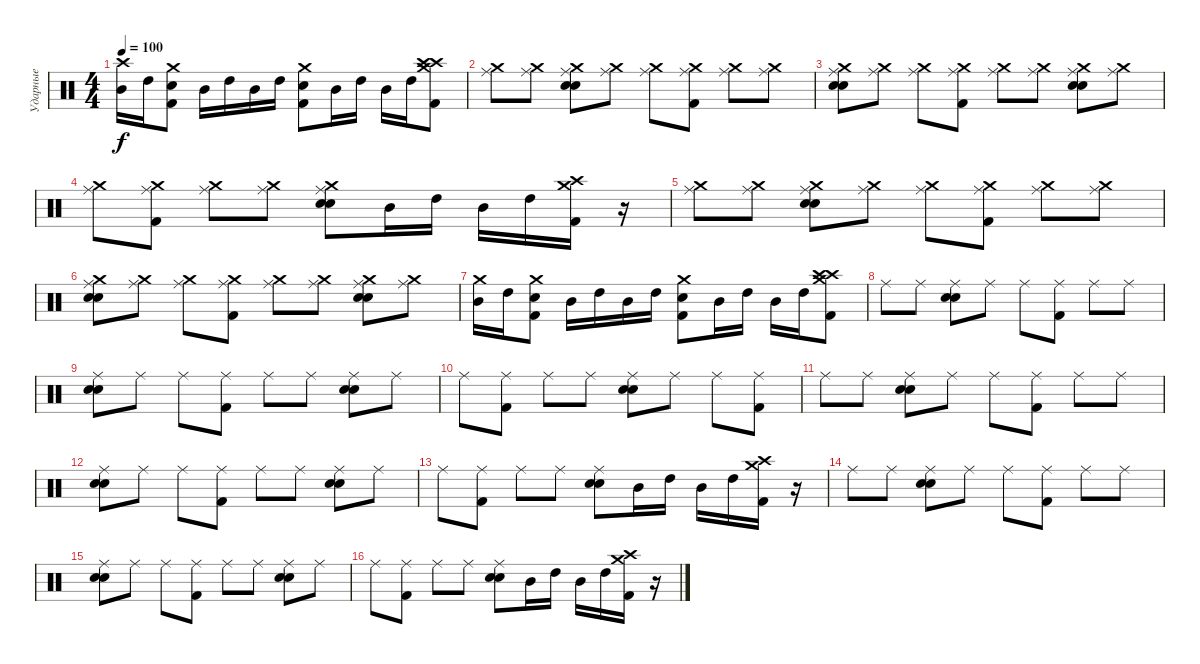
\track ("Ударные" "Ударные") {instrument percussion}
\staff {score}
\articulation defaults
\ts (4 4)
\tempo 100
\clef neutral
\ks c
("Crash high (hit)" "Mid Tom (hit)").16{dy f} "High Tom (hit)".16 ("Crash medium (hit)" "Snare (hit) 2" "Kick (hit) 2").8 "Mid Tom (hit)".16 "High Tom (hit)".16 "Mid Tom (hit)".16 "High Tom (hit)".16 ("Crash medium (hit)" "Snare (hit) 2" "Kick (hit) 2").8 "Mid Tom (hit)".16 "High Tom (hit)".16 "Mid Tom (hit)".16 "High Tom (hit)".16 ("Crash high (hit)" "Crash medium (hit)" "Crash high (hit)" "Kick (hit) 2").8 |
("Crash medium (hit)" "Ride (middle)").8 ("Crash medium (hit)" "Ride (middle)").8 ("Crash medium (hit)" "Hand Clap (hit)" "Electric Snare (hit)" "Ride (middle)").8 ("Crash medium (hit)" "Ride (middle)").8 ("Crash medium (hit)" "Ride (middle)").8 ("Crash medium (hit)" "Kick (hit) 2" "Ride (middle)").8 ("Crash medium (hit)" "Ride (middle)").8 ("Crash medium (hit)" "Ride (middle)").8 |
("Crash medium (hit)" "Hand Clap (hit)" "Electric Snare (hit)" "Ride (middle)").8 ("Crash medium (hit)" "Ride (middle)").8 ("Crash medium (hit)" "Ride (middle)").8 ("Crash medium (hit)" "Kick (hit) 2" "Ride (middle)").8 ("Crash medium (hit)" "Ride (middle)").8 ("Crash medium (hit)" "Ride (middle)").8 ("Crash medium (hit)" "Hand Clap (hit)" "Electric Snare (hit)" "Ride (middle)").8 ("Crash medium (hit)" "Ride (middle)").8 |
("Crash medium (hit)" "Ride (middle)").8 ("Crash medium (hit)" "Kick (hit) 2" "Ride (middle)").8 ("Crash medium (hit)" "Ride (middle)").8 ("Crash medium (hit)" "Ride (middle)").8 ("Crash medium (hit)" "Hand Clap (hit)" "Electric Snare (hit)" "Ride (middle)").8 "Mid Tom (hit)".16 "High Tom (hit)".16 "Mid Tom (hit)".16 "High Tom (hit)".16 ("Crash medium (hit)" "Crash high (hit)" "Kick (hit) 2").16 r.16 |
("Crash medium (hit)" "Ride (middle)").8 ("Crash medium (hit)" "Ride (middle)").8 ("Crash medium (hit)" "Hand Clap (hit)" "Electric Snare (hit)" "Ride (middle)").8 ("Crash medium (hit)" "Ride (middle)").8 ("Crash medium (hit)" "Ride (middle)").8 ("Crash medium (hit)" "Kick (hit) 2" "Ride (middle)").8 ("Crash medium (hit)" "Ride (middle)").8 ("Crash medium (hit)" "Ride (middle)").8 |
("Crash medium (hit)" "Hand Clap (hit)" "Electric Snare (hit)" "Ride (middle)").8 ("Crash medium (hit)" "Ride (middle)").8 ("Crash medium (hit)" "Ride (middle)").8 ("Crash medium (hit)" "Kick (hit) 2" "Ride (middle)").8 ("Crash medium (hit)" "Ride (middle)").8 ("Crash medium (hit)" "Ride (middle)").8 ("Crash medium (hit)" "Hand Clap (hit)" "Electric Snare (hit)" "Ride (middle)").8 ("Crash medium (hit)" "Ride (middle)").8 |
("Crash medium (hit)" "Mid Tom (hit)").16 "High Tom (hit)".16 ("Crash medium (hit)" "Snare (hit) 2" "Kick (hit) 2").8 "Mid Tom (hit)".16 "High Tom (hit)".16 "Mid Tom (hit)".16 "High Tom (hit)".16 ("Crash medium (hit)" "Snare (hit) 2" "Kick (hit) 2").8 "Mid Tom (hit)".16 "High Tom (hit)".16 "Mid Tom (hit)".16 "High Tom (hit)".16 ("Crash high (hit)" "Crash medium (hit)" "Crash high (hit)" "Kick (hit) 2").8 |
"Ride (middle)".8 "Ride (middle)".8 ("Hand Clap (hit)" "Electric Snare (hit)" "Ride (middle)").8 "Ride (middle)".8 "Ride (middle)".8 ("Kick (hit) 2" "Ride (middle)").8 "Ride (middle)".8 "Ride (middle)".8 |
("Hand Clap (hit)" "Electric Snare (hit)" "Ride (middle)").8 "Ride (middle)".8 "Ride (middle)".8 ("Kick (hit) 2" "Ride (middle)").8 "Ride (middle)".8 "Ride (middle)".8 ("Hand Clap (hit)" "Electric Snare (hit)" "Ride (middle)").8 "Ride (middle)".8 |
"Ride (middle)".8 ("Kick (hit) 2" "Ride (middle)").8 "Ride (middle)".8 "Ride (middle)".8 ("Hand Clap (hit)" "Electric Snare (hit)" "Ride (middle)").8 "Ride (middle)".8 "Ride (middle)".8 ("Kick (hit) 2" "Ride (middle)").8 |
"Ride (middle)".8 "Ride (middle)".8 ("Hand Clap (hit)" "Electric Snare (hit)" "Ride (middle)").8 "Ride (middle)".8 "Ride (middle)".8 ("Kick (hit) 2" "Ride (middle)").8 "Ride (middle)".8 "Ride (middle)".8 |
("Hand Clap (hit)" "Electric Snare (hit)" "Ride (middle)").8 "Ride (middle)".8 "Ride (middle)".8 ("Kick (hit) 2" "Ride (middle)").8 "Ride (middle)".8 "Ride (middle)".8 ("Hand Clap (hit)" "Electric Snare (hit)" "Ride (middle)").8 "Ride (middle)".8 |
"Ride (middle)".8 ("Kick (hit) 2" "Ride (middle)").8 "Ride (middle)".8 "Ride (middle)".8 ("Hand Clap (hit)" "Electric Snare (hit)" "Ride (middle)").8 "Mid Tom (hit)".16 "High Tom (hit)".16 "Mid Tom (hit)".16 "High Tom (hit)".16 ("Crash medium (hit)" "Crash high (hit)" "Kick (hit) 2").16 r.16 |
"Ride (middle)".8 "Ride (middle)".8 ("Hand Clap (hit)" "Electric Snare (hit)" "Ride (middle)").8 "Ride (middle)".8 "Ride (middle)".8 ("Kick (hit) 2" "Ride (middle)").8 "Ride (middle)".8 "Ride (middle)".8 |
("Hand Clap (hit)" "Electric Snare (hit)" "Ride (middle)").8 "Ride (middle)".8 "Ride (middle)".8 ("Kick (hit) 2" "Ride (middle)").8 "Ride (middle)".8 "Ride (middle)".8 ("Hand Clap (hit)" "Electric Snare (hit)" "Ride (middle)").8 "Ride (middle)".8 |
"Ride (middle)".8 ("Kick (hit) 2" "Ride (middle)").8 "Ride (middle)".8 "Ride (middle)".8 ("Hand Clap (hit)" "Electric Snare (hit)" "Ride (middle)").8 "Mid Tom (hit)".16 "High Tom (hit)".16 "Mid Tom (hit)".16 "High Tom (hit)".16 ("Crash medium (hit)" "Crash high (hit)" "Kick (hit) 2").16 r.16
